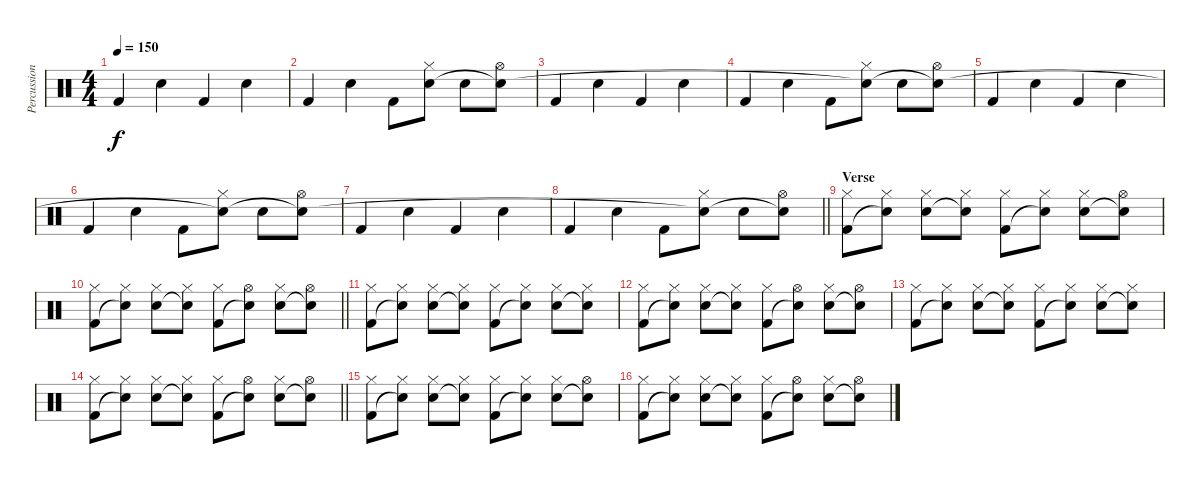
\track ("Percussion" "Percussion") {instrument percussion}
\staff {score}
\articulation defaults
\ts (4 4)
\tempo 150
\clef neutral
\ks c "Kick (hit) 2".4{dy f} "Snare (hit) 2".4 "Kick (hit) 2".4 "Snare (hit) 2".4
|
"Kick (hit) 2".4 "Snare (hit) 2".4 "Kick (hit) 2".8 ("Hi-Hat (closed)" "Snare (hit)"{t}).8 "Snare (hit) 2".8 ("Hi-Hat (open)" "Snare (hit)"{t}).8 |
"Kick (hit) 2".4 "Snare (hit) 2".4 "Kick (hit) 2".4 "Snare (hit) 2".4 |
"Kick (hit) 2".4 "Snare (hit) 2".4 "Kick (hit) 2".8 ("Hi-Hat (closed)" "Snare (hit)"{t}).8 "Snare (hit) 2".8 ("Hi-Hat (open)" "Snare (hit)"{t}).8 |
"Kick (hit) 2".4 "Snare (hit) 2".4 "Kick (hit) 2".4 "Snare (hit) 2".4 |
"Kick (hit) 2".4 "Snare (hit) 2".4 "Kick (hit) 2".8 ("Hi-Hat (closed)" "Snare (hit)"{t}).8 "Snare (hit) 2".8 ("Hi-Hat (open)" "Snare (hit)"{t}).8 |
"Kick (hit) 2".4 "Snare (hit) 2".4 "Kick (hit) 2".4 "Snare (hit) 2".4 |
\barLineRight lightlight "Kick (hit) 2".4 "Snare (hit) 2".4 "Kick (hit) 2".8
("Hi-Hat (closed)" "Snare (hit)"{t}).8 "Snare (hit) 2".8 ("Hi-Hat (open)" "Snare (hit)"{t}).8 |
\section ("" "Verse")
("Hi-Hat (closed)" "Kick (hit) 2").8 ("Hi-Hat (closed)" "Snare (hit)"{t}).8 ("Hi-Hat (closed)" "Snare (hit) 2").8 ("Hi-Hat (closed)" "Snare (hit)"{t}).8 ("Hi-Hat (closed)" "Kick (hit) 2").8 ("Hi-Hat (closed)" "Snare (hit)"{t}).8 ("Hi-Hat (closed)" "Snare (hit) 2").8 ("Hi-Hat (open)" "Snare (hit)"{t}).8 |
\barLineRight lightlight
("Hi-Hat (closed)" "Kick (hit) 2").8 ("Hi-Hat (closed)" "Snare (hit)"{t}).8 ("Hi-Hat (closed)" "Snare (hit) 2").8 ("Hi-Hat (closed)" "Snare (hit)"{t}).8 ("Hi-Hat (closed)" "Kick (hit) 2").8 ("Hi-Hat (open)" "Snare (hit)"{t}).8 ("Hi-Hat (closed)" "Snare (hit) 2").8 ("Hi-Hat (open)" "Snare (hit)"{t}).8 |
\section ("" "")
("Hi-Hat (closed)" "Kick (hit) 2").8 ("Hi-Hat (closed)" "Snare (hit)"{t}).8 ("Hi-Hat (closed)" "Snare (hit) 2").8 ("Hi-Hat (closed)" "Snare (hit)"{t}).8 ("Hi-Hat (closed)" "Kick (hit) 2").8 ("Hi-Hat (closed)" "Snare (hit)"{t}).8 ("Hi-Hat (closed)" "Snare (hit) 2").8 ("Hi-Hat (closed)" "Snare (hit)"{t}).8 |
("Hi-Hat (closed)" "Kick (hit) 2").8 ("Hi-Hat (closed)" "Snare (hit)"{t}).8 ("Hi-Hat (closed)" "Snare (hit) 2").8 ("Hi-Hat (closed)" "Snare (hit)"{t}).8 ("Hi-Hat (closed)" "Kick (hit) 2").8 ("Hi-Hat (open)" "Snare (hit)"{t}).8 ("Hi-Hat (closed)" "Snare (hit) 2").8 ("Hi-Hat (open)" "Snare (hit)"{t}).8 |
("Hi-Hat (closed)" "Kick (hit) 2").8 ("Hi-Hat (closed)" "Snare (hit)"{t}).8 ("Hi-Hat (closed)" "Snare (hit) 2").8 ("Hi-Hat (closed)" "Snare (hit)"{t}).8 ("Hi-Hat (closed)" "Kick (hit) 2").8 ("Hi-Hat (closed)" "Snare (hit)"{t}).8 ("Hi-Hat (closed)" "Snare (hit) 2").8 ("Hi-Hat (closed)" "Snare (hit)"{t}).8 |
\barLineRight lightlight
("Hi-Hat (closed)" "Kick (hit) 2").8 ("Hi-Hat (closed)" "Snare (hit)"{t}).8 ("Hi-Hat (closed)" "Snare (hit) 2").8 ("Hi-Hat (closed)" "Snare (hit)"{t}).8 ("Hi-Hat (closed)" "Kick (hit) 2").8 ("Hi-Hat (open)" "Snare (hit)"{t}).8 ("Hi-Hat (closed)" "Snare (hit) 2").8 ("Hi-Hat (open)" "Snare (hit)"{t}).8 |
("Hi-Hat (closed)" "Kick (hit) 2").8 ("Hi-Hat (closed)" "Snare (hit)"{t}).8 ("Hi-Hat (closed)" "Snare (hit) 2").8 ("Hi-Hat (closed)" "Snare (hit)"{t}).8 ("Hi-Hat (closed)" "Kick (hit) 2").8 ("Hi-Hat (closed)" "Snare (hit)"{t}).8 ("Hi-Hat (closed)" "Snare (hit) 2").8 ("Hi-Hat (open)" "Snare (hit)"{t}).8 |
("Hi-Hat (closed)" "Kick (hit) 2").8 ("Hi-Hat (closed)" "Snare (hit)"{t}).8 ("Hi-Hat (closed)" "Snare (hit) 2").8 ("Hi-Hat (closed)" "Snare (hit)"{t}).8 ("Hi-Hat (closed)" "Kick (hit) 2").8 ("Hi-Hat (open)" "Snare (hit)"{t}).8 ("Hi-Hat (closed)" "Snare (hit) 2").8 ("Hi-Hat (open)" "Snare (hit)"{t}).8
